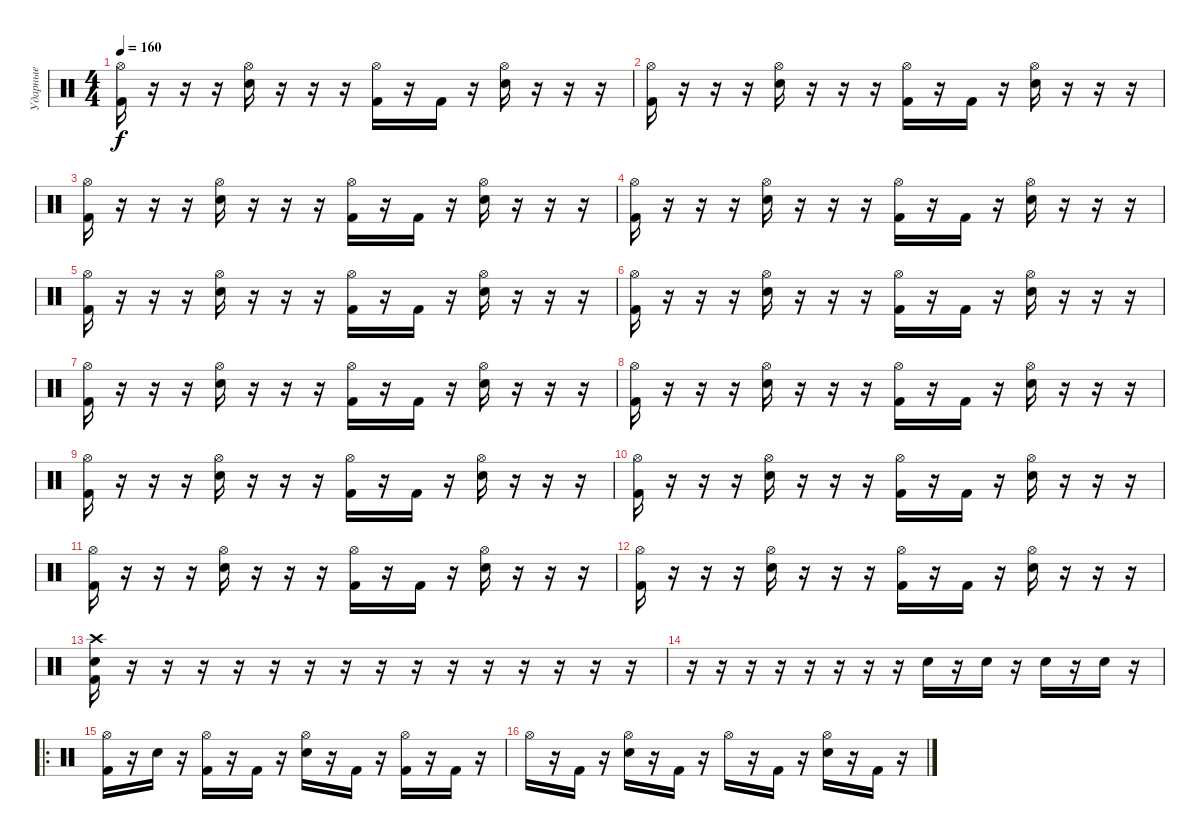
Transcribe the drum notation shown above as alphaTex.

\track ("Ударные" "Ударные") {instrument percussion}
\staff {score}
\articulation defaults
\ts (4 4)
\tempo 160
\clef neutral
\ks c
("Hi-Hat (open)" "Kick (hit) 2").16{dy f} r.16 r.16 r.16 ("Hi-Hat (open)" "Electric Snare (hit)").16 r.16 r.16 r.16 ("Hi-Hat (open)" "Kick (hit) 2").16 r.16 "Kick (hit) 2".16 r.16 ("Hi-Hat (open)" "Electric Snare (hit)").16 r.16 r.16 r.16 |
("Hi-Hat (open)" "Kick (hit) 2").16 r.16 r.16 r.16 ("Hi-Hat (open)" "Electric Snare (hit)").16 r.16 r.16 r.16 ("Hi-Hat (open)" "Kick (hit) 2").16 r.16 "Kick (hit) 2".16 r.16 ("Hi-Hat (open)" "Electric Snare (hit)").16 r.16 r.16 r.16 |
("Hi-Hat (open)" "Kick (hit) 2").16 r.16 r.16 r.16 ("Hi-Hat (open)" "Electric Snare (hit)").16 r.16 r.16 r.16 ("Hi-Hat (open)" "Kick (hit) 2").16 r.16 "Kick (hit) 2".16 r.16 ("Hi-Hat (open)" "Electric Snare (hit)").16 r.16 r.16 r.16 |
("Hi-Hat (open)" "Kick (hit) 2").16 r.16 r.16 r.16 ("Hi-Hat (open)" "Electric Snare (hit)").16 r.16 r.16 r.16 ("Hi-Hat (open)" "Kick (hit) 2").16 r.16 "Kick (hit) 2".16 r.16 ("Hi-Hat (open)" "Electric Snare (hit)").16 r.16 r.16 r.16 |
("Hi-Hat (open)" "Kick (hit) 2").16 r.16 r.16 r.16 ("Hi-Hat (open)" "Electric Snare (hit)").16 r.16 r.16 r.16 ("Hi-Hat (open)" "Kick (hit) 2").16 r.16 "Kick (hit) 2".16 r.16 ("Hi-Hat (open)" "Electric Snare (hit)").16 r.16 r.16 r.16 |
("Hi-Hat (open)" "Kick (hit) 2").16 r.16 r.16 r.16 ("Hi-Hat (open)" "Electric Snare (hit)").16 r.16 r.16 r.16 ("Hi-Hat (open)" "Kick (hit) 2").16 r.16 "Kick (hit) 2".16 r.16 ("Hi-Hat (open)" "Electric Snare (hit)").16 r.16 r.16 r.16 |
("Hi-Hat (open)" "Kick (hit) 2").16 r.16 r.16 r.16 ("Hi-Hat (open)" "Electric Snare (hit)").16 r.16 r.16 r.16 ("Hi-Hat (open)" "Kick (hit) 2").16 r.16 "Kick (hit) 2".16 r.16 ("Hi-Hat (open)" "Electric Snare (hit)").16 r.16 r.16 r.16 |
("Hi-Hat (open)" "Kick (hit) 2").16 r.16 r.16 r.16 ("Hi-Hat (open)" "Electric Snare (hit)").16 r.16 r.16 r.16 ("Hi-Hat (open)" "Kick (hit) 2").16 r.16 "Kick (hit) 2".16 r.16 ("Hi-Hat (open)" "Electric Snare (hit)").16 r.16 r.16 r.16 |
("Hi-Hat (open)" "Kick (hit) 2").16 r.16 r.16 r.16 ("Hi-Hat (open)" "Electric Snare (hit)").16 r.16 r.16 r.16 ("Hi-Hat (open)" "Kick (hit) 2").16 r.16 "Kick (hit) 2".16 r.16 ("Hi-Hat (open)" "Electric Snare (hit)").16 r.16 r.16 r.16 |
("Hi-Hat (open)" "Kick (hit) 2").16 r.16 r.16 r.16 ("Hi-Hat (open)" "Electric Snare (hit)").16 r.16 r.16 r.16 ("Hi-Hat (open)" "Kick (hit) 2").16 r.16 "Kick (hit) 2".16 r.16 ("Hi-Hat (open)" "Electric Snare (hit)").16 r.16 r.16 r.16 |
("Hi-Hat (open)" "Kick (hit) 2").16 r.16 r.16 r.16 ("Hi-Hat (open)" "Electric Snare (hit)").16 r.16 r.16 r.16 ("Hi-Hat (open)" "Kick (hit) 2").16 r.16 "Kick (hit) 2".16 r.16 ("Hi-Hat (open)" "Electric Snare (hit)").16 r.16 r.16 r.16 |
("Hi-Hat (open)" "Kick (hit) 2").16 r.16 r.16 r.16 ("Hi-Hat (open)" "Electric Snare (hit)").16 r.16 r.16 r.16 ("Hi-Hat (open)" "Kick (hit) 2").16 r.16 "Kick (hit) 2".16 r.16 ("Hi-Hat (open)" "Electric Snare (hit)").16 r.16 r.16 r.16 |
("Crash high (hit)" "Electric Snare (hit)" "Kick (hit) 2").16 r.16 r.16 r.16 r.16 r.16 r.16 r.16 r.16 r.16 r.16 r.16 r.16 r.16 r.16 r.16 |
r.16 r.16 r.16 r.16 r.16 r.16 r.16 r.16 "Electric Snare (hit)".16 r.16 "Electric Snare (hit)".16 r.16 "Electric Snare (hit)".16 r.16 "Electric Snare (hit)".16 r.16 |
\ro
("Hi-Hat (open)" "Kick (hit) 2").16 r.16 "Electric Snare (hit)".16 r.16 ("Hi-Hat (open)" "Kick (hit) 2").16 r.16 "Kick (hit) 2".16 r.16 ("Hi-Hat (open)" "Electric Snare (hit)").16 r.16 "Kick (hit) 2".16 r.16 ("Hi-Hat (open)" "Kick (hit) 2").16 r.16 "Kick (hit) 2".16 r.16 |
"Hi-Hat (open)".16 r.16 "Kick (hit) 2".16 r.16 ("Hi-Hat (open)" "Electric Snare (hit)").16 r.16 "Kick (hit) 2".16 r.16 "Hi-Hat (open)".16 r.16 "Kick (hit) 2".16 r.16 ("Hi-Hat (open)" "Electric Snare (hit)").16 r.16 "Kick (hit) 2".16 r.16
